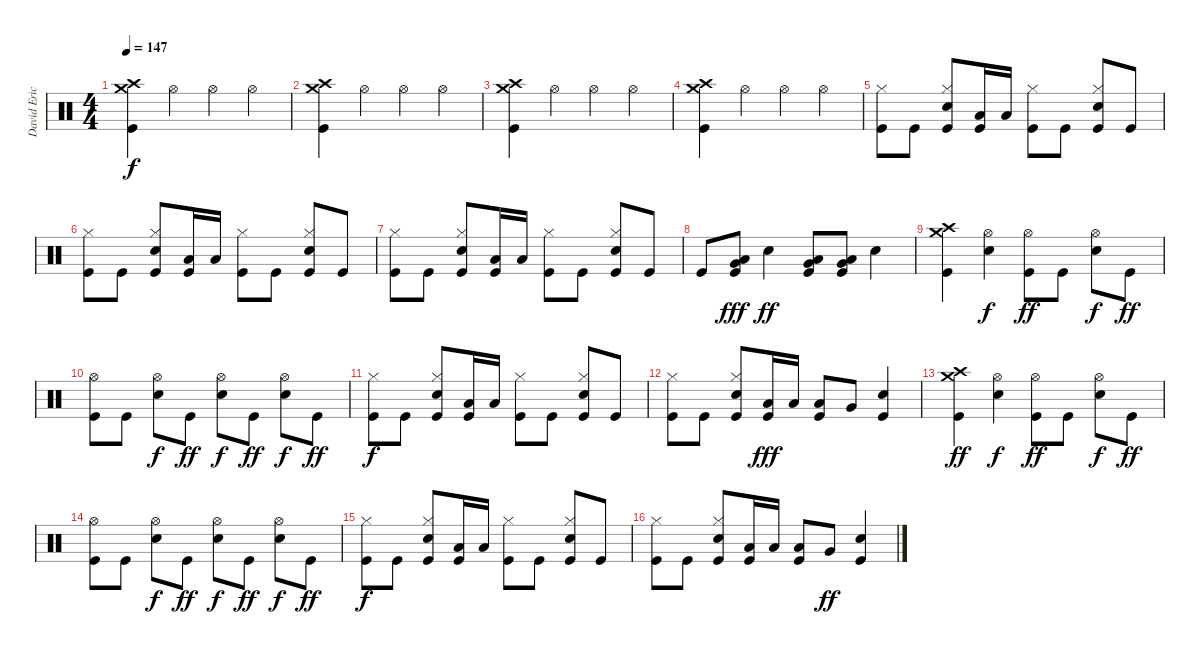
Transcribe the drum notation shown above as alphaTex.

\track ("David Eric Grohl" "David Eric") {instrument percussion}
\staff {score}
\articulation defaults
\ts (4 4)
\tempo 147
\clef neutral
\ks c
("Crash medium (hit)" "Crash high (hit)" "Kick (hit)").4{dy f} "Hi-Hat (open)".4 "Hi-Hat (open)".4 "Hi-Hat (open)".4 |
("Crash medium (hit)" "Crash high (hit)" "Kick (hit)").4 "Hi-Hat (open)".4 "Hi-Hat (open)".4 "Hi-Hat (open)".4 |
("Crash medium (hit)" "Crash high (hit)" "Kick (hit)").4 "Hi-Hat (open)".4 "Hi-Hat (open)".4 "Hi-Hat (open)".4 |
("Crash medium (hit)" "Crash high (hit)" "Kick (hit)").4 "Hi-Hat (open)".4 "Hi-Hat (open)".4 "Hi-Hat (open)".4 |
("Hi-Hat (closed)" "Kick (hit)").8 "Kick (hit)".8 ("Snare (hit) 2" "Hi-Hat (closed)" "Kick (hit)").8 ("Low Tom (hit)" "Kick (hit)").16 "Low Tom (hit)".16 ("Hi-Hat (closed)" "Kick (hit)").8 "Kick (hit)".8 ("Snare (hit) 2" "Hi-Hat (closed)" "Kick (hit)").8 "Kick (hit)".8 |
("Hi-Hat (closed)" "Kick (hit)").8 "Kick (hit)".8 ("Snare (hit) 2" "Hi-Hat (closed)" "Kick (hit)").8 ("Low Tom (hit)" "Kick (hit)").16 "Low Tom (hit)".16 ("Hi-Hat (closed)" "Kick (hit)").8 "Kick (hit)".8 ("Snare (hit) 2" "Hi-Hat (closed)" "Kick (hit)").8 "Kick (hit)".8 |
("Hi-Hat (closed)" "Kick (hit)").8 "Kick (hit)".8 ("Snare (hit) 2" "Hi-Hat (closed)" "Kick (hit)").8 ("Low Tom (hit)" "Kick (hit)").16 "Low Tom (hit)".16 ("Hi-Hat (closed)" "Kick (hit)").8 "Kick (hit)".8 ("Snare (hit) 2" "Hi-Hat (closed)" "Kick (hit)").8 "Kick (hit)".8 |
"Kick (hit)".8 ("Low Tom (hit)" "Very Low Tom (hit)" "Kick (hit)").8{dy fff} "Snare (hit) 2".4{dy ff} ("Low Tom (hit)" "Very Low Tom (hit)" "Kick (hit)").8 ("Low Tom (hit)" "Very Low Tom (hit)" "Kick (hit)").8 "Snare (hit) 2".4 |
("Crash medium (hit)" "Crash high (hit)" "Kick (hit)").4 ("Hi-Hat (open)" "Snare (hit) 2").4{dy f} ("Hi-Hat (open)" "Kick (hit)").8{dy ff} "Kick (hit)".8 ("Hi-Hat (open)" "Snare (hit) 2").8{dy f} "Kick (hit)".8{dy ff} |
("Hi-Hat (open)" "Kick (hit)").8 "Kick (hit)".8 ("Hi-Hat (open)" "Snare (hit) 2").8{dy f} "Kick (hit)".8{dy ff} ("Hi-Hat (open)" "Snare (hit) 2").8{dy f} "Kick (hit)".8{dy ff} ("Hi-Hat (open)" "Snare (hit) 2").8{dy f} "Kick (hit)".8{dy ff} |
("Hi-Hat (closed)" "Kick (hit)").8{dy f} "Kick (hit)".8 ("Snare (hit) 2" "Hi-Hat (closed)" "Kick (hit)").8 ("Low Tom (hit)" "Kick (hit)").16 "Low Tom (hit)".16 ("Hi-Hat (closed)" "Kick (hit)").8 "Kick (hit)".8 ("Snare (hit) 2" "Hi-Hat (closed)" "Kick (hit)").8 "Kick (hit)".8 |
("Hi-Hat (closed)" "Kick (hit)").8 "Kick (hit)".8 ("Snare (hit) 2" "Hi-Hat (closed)" "Kick (hit)").8 ("Low Tom (hit)" "Kick (hit)").16{dy fff} "Low Tom (hit)".16 ("Low Tom (hit)" "Kick (hit)").8 "Very Low Tom (hit)".8 ("Snare (hit) 2" "Kick (hit)").4 |
("Crash medium (hit)" "Crash high (hit)" "Kick (hit)").4{dy ff} ("Hi-Hat (open)" "Snare (hit) 2").4{dy f} ("Hi-Hat (open)" "Kick (hit)").8{dy ff} "Kick (hit)".8 ("Hi-Hat (open)" "Snare (hit) 2").8{dy f} "Kick (hit)".8{dy ff} |
("Hi-Hat (open)" "Kick (hit)").8 "Kick (hit)".8 ("Hi-Hat (open)" "Snare (hit) 2").8{dy f} "Kick (hit)".8{dy ff} ("Hi-Hat (open)" "Snare (hit) 2").8{dy f} "Kick (hit)".8{dy ff} ("Hi-Hat (open)" "Snare (hit) 2").8{dy f} "Kick (hit)".8{dy ff} |
("Hi-Hat (closed)" "Kick (hit)").8{dy f} "Kick (hit)".8 ("Snare (hit) 2" "Hi-Hat (closed)" "Kick (hit)").8 ("Low Tom (hit)" "Kick (hit)").16 "Low Tom (hit)".16 ("Hi-Hat (closed)" "Kick (hit)").8 "Kick (hit)".8 ("Snare (hit) 2" "Hi-Hat (closed)" "Kick (hit)").8 "Kick (hit)".8 |
("Hi-Hat (closed)" "Kick (hit)").8 "Kick (hit)".8 ("Snare (hit) 2" "Hi-Hat (closed)" "Kick (hit)").8 ("Low Tom (hit)" "Kick (hit)").16 "Low Tom (hit)".16 ("Low Tom (hit)" "Kick (hit)").8 "Very Low Tom (hit)".8{dy ff} ("Snare (hit) 2" "Kick (hit)").4
